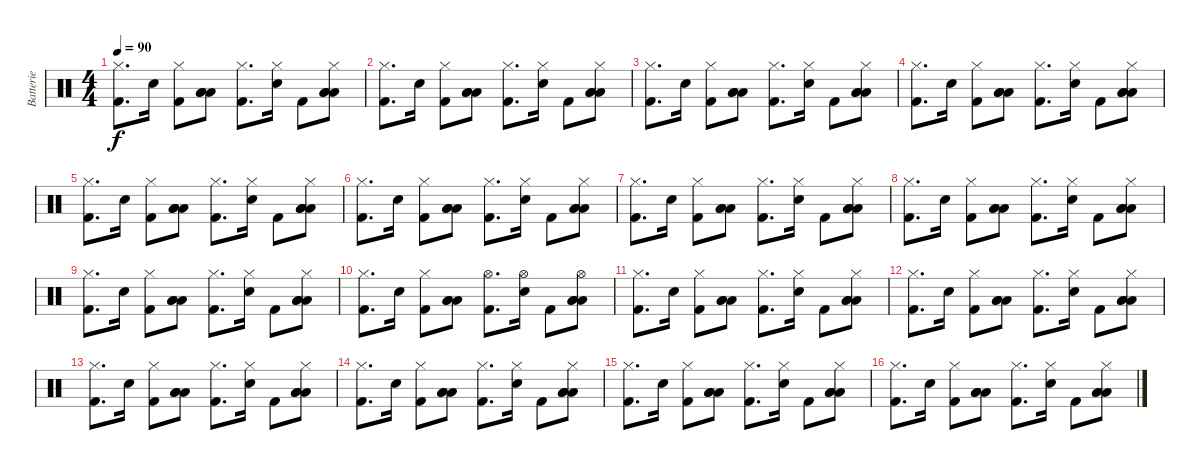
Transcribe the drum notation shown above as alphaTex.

\track ("Batterie" "Batterie") {instrument percussion}
\staff {score}
\articulation defaults
\ts (4 4)
\tempo 90
\clef neutral
\ks c
("Kick (hit) 2" "Hi-Hat (closed)").8{d dy f} "Electric Snare (hit)".16 ("Kick (hit) 2" "Hi-Hat (closed)").8 ("Low Tom (hit)" "Low Tom (hit)" "Low Tom (hit)").8 ("Kick (hit) 2" "Hi-Hat (closed)").8{d} ("Electric Snare (hit)" "Hi-Hat (closed)").16 "Kick (hit) 2".8 ("Low Tom (hit)" "Low Tom (hit)" "Low Tom (hit)" "Hi-Hat (closed)").8 |
("Kick (hit) 2" "Hi-Hat (closed)").8{d} "Electric Snare (hit)".16 ("Kick (hit) 2" "Hi-Hat (closed)").8 ("Low Tom (hit)" "Low Tom (hit)" "Low Tom (hit)").8 ("Kick (hit) 2" "Hi-Hat (closed)").8{d} ("Electric Snare (hit)" "Hi-Hat (closed)").16 "Kick (hit) 2".8 ("Low Tom (hit)" "Low Tom (hit)" "Low Tom (hit)" "Hi-Hat (closed)").8 |
("Kick (hit) 2" "Hi-Hat (closed)").8{d} "Electric Snare (hit)".16 ("Kick (hit) 2" "Hi-Hat (closed)").8 ("Low Tom (hit)" "Low Tom (hit)" "Low Tom (hit)").8 ("Kick (hit) 2" "Hi-Hat (closed)").8{d} ("Electric Snare (hit)" "Hi-Hat (closed)").16 "Kick (hit) 2".8 ("Low Tom (hit)" "Low Tom (hit)" "Low Tom (hit)" "Hi-Hat (closed)").8 |
("Kick (hit) 2" "Hi-Hat (closed)").8{d} "Electric Snare (hit)".16 ("Kick (hit) 2" "Hi-Hat (closed)").8 ("Low Tom (hit)" "Low Tom (hit)" "Low Tom (hit)").8 ("Kick (hit) 2" "Hi-Hat (closed)").8{d} ("Electric Snare (hit)" "Hi-Hat (closed)").16 "Kick (hit) 2".8 ("Low Tom (hit)" "Low Tom (hit)" "Low Tom (hit)" "Hi-Hat (closed)").8 |
("Kick (hit) 2" "Hi-Hat (closed)").8{d} "Electric Snare (hit)".16 ("Kick (hit) 2" "Hi-Hat (closed)").8 ("Low Tom (hit)" "Low Tom (hit)" "Low Tom (hit)").8 ("Kick (hit) 2" "Hi-Hat (closed)").8{d} ("Electric Snare (hit)" "Hi-Hat (closed)").16 "Kick (hit) 2".8 ("Low Tom (hit)" "Low Tom (hit)" "Low Tom (hit)" "Hi-Hat (closed)").8 |
("Kick (hit) 2" "Hi-Hat (closed)").8{d} "Electric Snare (hit)".16 ("Kick (hit) 2" "Hi-Hat (closed)").8 ("Low Tom (hit)" "Low Tom (hit)" "Low Tom (hit)").8 ("Kick (hit) 2" "Hi-Hat (closed)").8{d} ("Electric Snare (hit)" "Hi-Hat (closed)").16 "Kick (hit) 2".8 ("Low Tom (hit)" "Low Tom (hit)" "Low Tom (hit)" "Hi-Hat (closed)").8 |
("Kick (hit) 2" "Hi-Hat (closed)").8{d} "Electric Snare (hit)".16 ("Kick (hit) 2" "Hi-Hat (closed)").8 ("Low Tom (hit)" "Low Tom (hit)" "Low Tom (hit)").8 ("Kick (hit) 2" "Hi-Hat (closed)").8{d} ("Electric Snare (hit)" "Hi-Hat (closed)").16 "Kick (hit) 2".8 ("Low Tom (hit)" "Low Tom (hit)" "Low Tom (hit)" "Hi-Hat (closed)").8 |
("Kick (hit) 2" "Hi-Hat (closed)").8{d} "Electric Snare (hit)".16 ("Kick (hit) 2" "Hi-Hat (closed)").8 ("Low Tom (hit)" "Low Tom (hit)" "Low Tom (hit)").8 ("Kick (hit) 2" "Hi-Hat (closed)").8{d} ("Electric Snare (hit)" "Hi-Hat (closed)").16 "Kick (hit) 2".8 ("Low Tom (hit)" "Low Tom (hit)" "Low Tom (hit)" "Hi-Hat (closed)").8 |
("Kick (hit) 2" "Hi-Hat (closed)").8{d} "Electric Snare (hit)".16 ("Kick (hit) 2" "Hi-Hat (closed)").8 ("Low Tom (hit)" "Low Tom (hit)" "Low Tom (hit)").8 ("Kick (hit) 2" "Hi-Hat (closed)").8{d} ("Electric Snare (hit)" "Hi-Hat (closed)").16 "Kick (hit) 2".8 ("Low Tom (hit)" "Low Tom (hit)" "Low Tom (hit)" "Hi-Hat (closed)").8 |
("Kick (hit) 2" "Hi-Hat (closed)").8{d} "Electric Snare (hit)".16 ("Kick (hit) 2" "Hi-Hat (closed)").8 ("Low Tom (hit)" "Low Tom (hit)" "Low Tom (hit)").8 ("Kick (hit) 2" "Hi-Hat (open)").8{d} ("Electric Snare (hit)" "Hi-Hat (open)").16 "Kick (hit) 2".8 ("Low Tom (hit)" "Low Tom (hit)" "Low Tom (hit)" "Hi-Hat (open)").8 |
("Kick (hit) 2" "Hi-Hat (closed)").8{d} "Electric Snare (hit)".16 ("Kick (hit) 2" "Hi-Hat (closed)").8 ("Low Tom (hit)" "Low Tom (hit)" "Low Tom (hit)").8 ("Kick (hit) 2" "Hi-Hat (closed)").8{d} ("Electric Snare (hit)" "Hi-Hat (closed)").16 "Kick (hit) 2".8 ("Low Tom (hit)" "Low Tom (hit)" "Low Tom (hit)" "Hi-Hat (closed)").8 |
("Kick (hit) 2" "Hi-Hat (closed)").8{d} "Electric Snare (hit)".16 ("Kick (hit) 2" "Hi-Hat (closed)").8 ("Low Tom (hit)" "Low Tom (hit)" "Low Tom (hit)").8 ("Kick (hit) 2" "Hi-Hat (closed)").8{d} ("Electric Snare (hit)" "Hi-Hat (closed)").16 "Kick (hit) 2".8 ("Low Tom (hit)" "Low Tom (hit)" "Low Tom (hit)" "Hi-Hat (closed)").8 |
("Kick (hit) 2" "Hi-Hat (closed)").8{d} "Electric Snare (hit)".16 ("Kick (hit) 2" "Hi-Hat (closed)").8 ("Low Tom (hit)" "Low Tom (hit)" "Low Tom (hit)").8 ("Kick (hit) 2" "Hi-Hat (closed)").8{d} ("Electric Snare (hit)" "Hi-Hat (closed)").16 "Kick (hit) 2".8 ("Low Tom (hit)" "Low Tom (hit)" "Low Tom (hit)" "Hi-Hat (closed)").8 |
("Kick (hit) 2" "Hi-Hat (closed)").8{d} "Electric Snare (hit)".16 ("Kick (hit) 2" "Hi-Hat (closed)").8 ("Low Tom (hit)" "Low Tom (hit)" "Low Tom (hit)").8 ("Kick (hit) 2" "Hi-Hat (closed)").8{d} ("Electric Snare (hit)" "Hi-Hat (closed)").16 "Kick (hit) 2".8 ("Low Tom (hit)" "Low Tom (hit)" "Low Tom (hit)" "Hi-Hat (closed)").8 |
("Kick (hit) 2" "Hi-Hat (closed)").8{d} "Electric Snare (hit)".16 ("Kick (hit) 2" "Hi-Hat (closed)").8 ("Low Tom (hit)" "Low Tom (hit)" "Low Tom (hit)").8 ("Kick (hit) 2" "Hi-Hat (closed)").8{d} ("Electric Snare (hit)" "Hi-Hat (closed)").16 "Kick (hit) 2".8 ("Low Tom (hit)" "Low Tom (hit)" "Low Tom (hit)" "Hi-Hat (closed)").8 |
("Kick (hit) 2" "Hi-Hat (closed)").8{d} "Electric Snare (hit)".16 ("Kick (hit) 2" "Hi-Hat (closed)").8 ("Low Tom (hit)" "Low Tom (hit)" "Low Tom (hit)").8 ("Kick (hit) 2" "Hi-Hat (closed)").8{d} ("Electric Snare (hit)" "Hi-Hat (closed)").16 "Kick (hit) 2".8 ("Low Tom (hit)" "Low Tom (hit)" "Low Tom (hit)" "Hi-Hat (closed)").8
